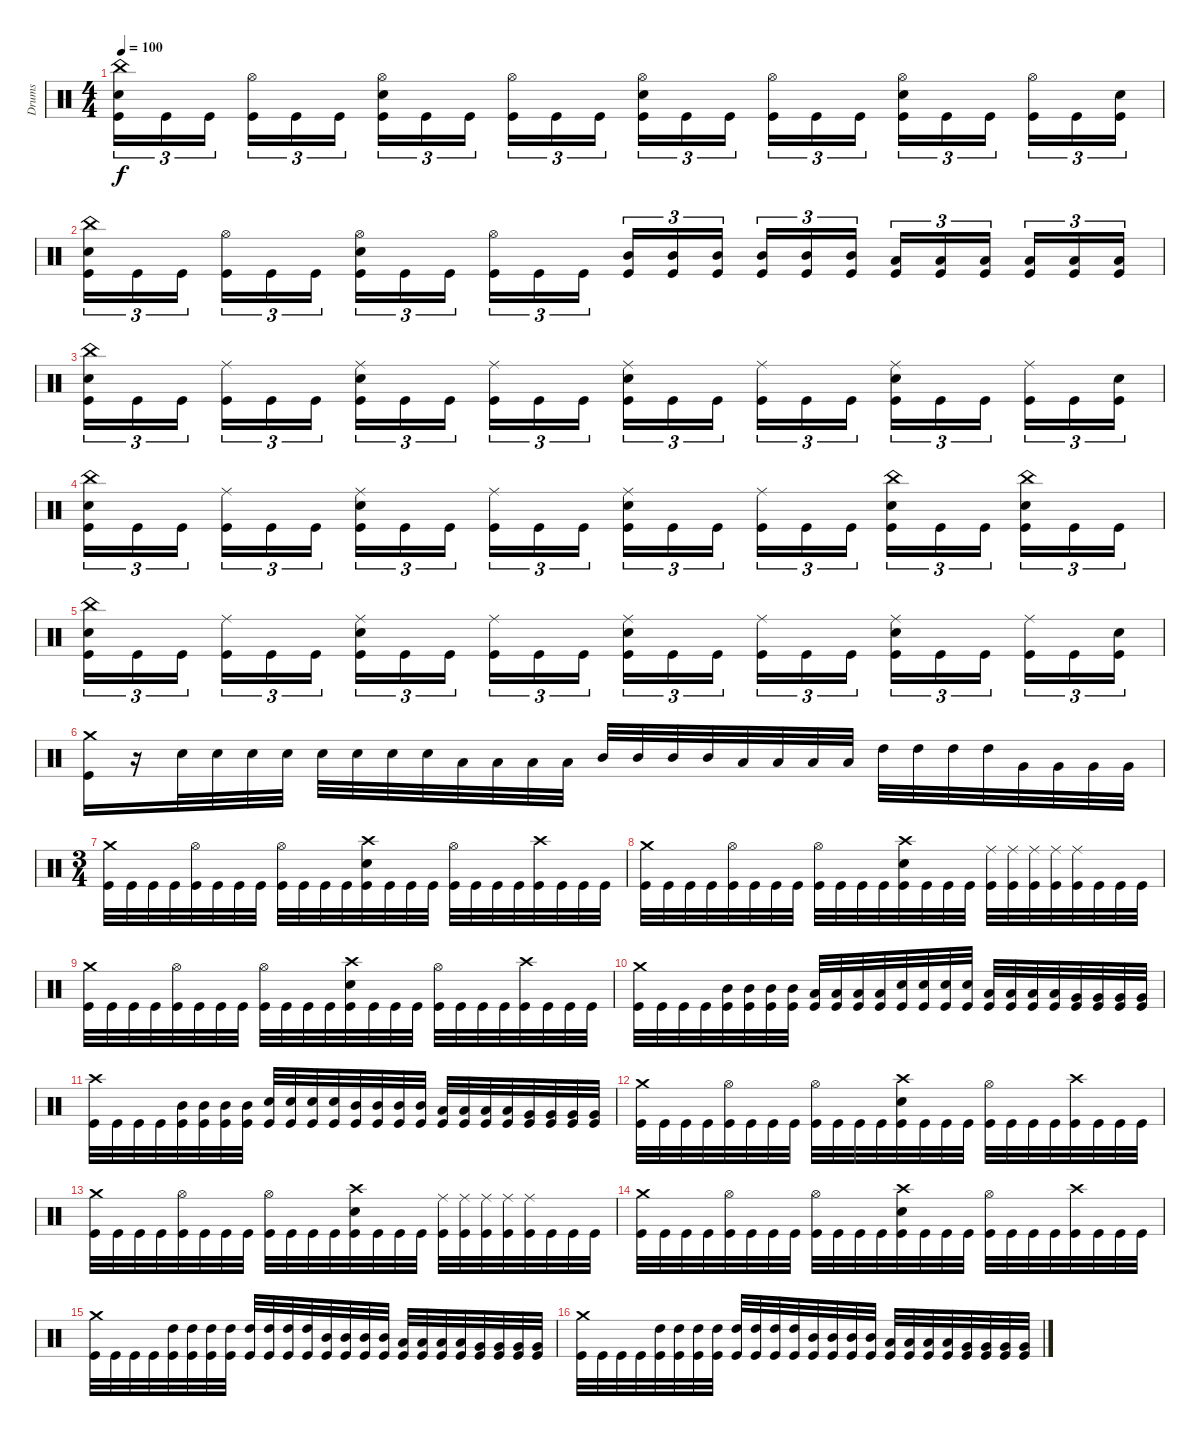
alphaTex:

\track ("Drums" "Drums") {instrument percussion}
\staff {score}
\articulation defaults
\ts (4 4)
\tempo 100
\clef neutral
\ks c
("China (hit)" "Snare (hit) 2" "Kick (hit)").16{tu (3 2) dy f} "Kick (hit)".16{tu (3 2)} "Kick (hit)".16{tu (3 2)} ("Hi-Hat (open)" "Kick (hit)").16{tu (3 2)} "Kick (hit)".16{tu (3 2)} "Kick (hit)".16{tu (3 2)} ("Hi-Hat (open)" "Snare (hit) 2" "Kick (hit)").16{tu (3 2)} "Kick (hit)".16{tu (3 2)} "Kick (hit)".16{tu (3 2)} ("Hi-Hat (open)" "Kick (hit)").16{tu (3 2)} "Kick (hit)".16{tu (3 2)} "Kick (hit)".16{tu (3 2)} ("Hi-Hat (open)" "Snare (hit) 2" "Kick (hit)").16{tu (3 2)} "Kick (hit)".16{tu (3 2)} "Kick (hit)".16{tu (3 2)} ("Hi-Hat (open)" "Kick (hit)").16{tu (3 2)} "Kick (hit)".16{tu (3 2)} "Kick (hit)".16{tu (3 2)} ("Hi-Hat (open)" "Snare (hit) 2" "Kick (hit)").16{tu (3 2)} "Kick (hit)".16{tu (3 2)} "Kick (hit)".16{tu (3 2)} ("Hi-Hat (open)" "Kick (hit)").16{tu (3 2)} "Kick (hit)".16{tu (3 2)} ("Snare (hit) 2" "Kick (hit)").16{tu (3 2)} |
("China (hit)" "Snare (hit) 2" "Kick (hit)").16{tu (3 2)} "Kick (hit)".16{tu (3 2)} "Kick (hit)".16{tu (3 2)} ("Hi-Hat (open)" "Kick (hit)").16{tu (3 2)} "Kick (hit)".16{tu (3 2)} "Kick (hit)".16{tu (3 2)} ("Hi-Hat (open)" "Snare (hit) 2" "Kick (hit)").16{tu (3 2)} "Kick (hit)".16{tu (3 2)} "Kick (hit)".16{tu (3 2)} ("Hi-Hat (open)" "Kick (hit)").16{tu (3 2)} "Kick (hit)".16{tu (3 2)} "Kick (hit)".16{tu (3 2)} ("Mid Tom (hit)" "Kick (hit)").16{tu (3 2)} ("Mid Tom (hit)" "Kick (hit)").16{tu (3 2)} ("Mid Tom (hit)" "Kick (hit)").16{tu (3 2)} ("Mid Tom (hit)" "Kick (hit)").16{tu (3 2)} ("Mid Tom (hit)" "Kick (hit)").16{tu (3 2)} ("Mid Tom (hit)" "Kick (hit)").16{tu (3 2)} ("Low Tom (hit)" "Kick (hit)").16{tu (3 2)} ("Low Tom (hit)" "Kick (hit)").16{tu (3 2)} ("Low Tom (hit)" "Kick (hit)").16{tu (3 2)} ("Low Tom (hit)" "Kick (hit)").16{tu (3 2)} ("Low Tom (hit)" "Kick (hit)").16{tu (3 2)} ("Low Tom (hit)" "Kick (hit)").16{tu (3 2)} |
("China (hit)" "Snare (hit) 2" "Kick (hit)").16{tu (3 2)} "Kick (hit)".16{tu (3 2)} "Kick (hit)".16{tu (3 2)} ("Ride (middle)" "Kick (hit)").16{tu (3 2)} "Kick (hit)".16{tu (3 2)} "Kick (hit)".16{tu (3 2)} ("Ride (middle)" "Snare (hit) 2" "Kick (hit)").16{tu (3 2)} "Kick (hit)".16{tu (3 2)} "Kick (hit)".16{tu (3 2)} ("Ride (middle)" "Kick (hit)").16{tu (3 2)} "Kick (hit)".16{tu (3 2)} "Kick (hit)".16{tu (3 2)} ("Ride (middle)" "Snare (hit) 2" "Kick (hit)").16{tu (3 2)} "Kick (hit)".16{tu (3 2)} "Kick (hit)".16{tu (3 2)} ("Ride (middle)" "Kick (hit)").16{tu (3 2)} "Kick (hit)".16{tu (3 2)} "Kick (hit)".16{tu (3 2)} ("Ride (middle)" "Snare (hit) 2" "Kick (hit)").16{tu (3 2)} "Kick (hit)".16{tu (3 2)} "Kick (hit)".16{tu (3 2)} ("Ride (middle)" "Kick (hit)").16{tu (3 2)} "Kick (hit)".16{tu (3 2)} ("Snare (hit) 2" "Kick (hit)").16{tu (3 2)} |
("China (hit)" "Snare (hit) 2" "Kick (hit)").16{tu (3 2)} "Kick (hit)".16{tu (3 2)} "Kick (hit)".16{tu (3 2)} ("Ride (middle)" "Kick (hit)").16{tu (3 2)} "Kick (hit)".16{tu (3 2)} "Kick (hit)".16{tu (3 2)} ("Ride (middle)" "Snare (hit) 2" "Kick (hit)").16{tu (3 2)} "Kick (hit)".16{tu (3 2)} "Kick (hit)".16{tu (3 2)} ("Ride (middle)" "Kick (hit)").16{tu (3 2)} "Kick (hit)".16{tu (3 2)} "Kick (hit)".16{tu (3 2)} ("Ride (middle)" "Snare (hit) 2" "Kick (hit)").16{tu (3 2)} "Kick (hit)".16{tu (3 2)} "Kick (hit)".16{tu (3 2)} ("Ride (middle)" "Kick (hit)").16{tu (3 2)} "Kick (hit)".16{tu (3 2)} "Kick (hit)".16{tu (3 2)} ("China (hit)" "Snare (hit) 2" "Kick (hit)").16{tu (3 2)} "Kick (hit)".16{tu (3 2)} "Kick (hit)".16{tu (3 2)} ("China (hit)" "Snare (hit) 2" "Kick (hit)").16{tu (3 2)} "Kick (hit)".16{tu (3 2)} "Kick (hit)".16{tu (3 2)} |
("China (hit)" "Snare (hit) 2" "Kick (hit)").16{tu (3 2)} "Kick (hit)".16{tu (3 2)} "Kick (hit)".16{tu (3 2)} ("Ride (middle)" "Kick (hit)").16{tu (3 2)} "Kick (hit)".16{tu (3 2)} "Kick (hit)".16{tu (3 2)} ("Ride (middle)" "Snare (hit) 2" "Kick (hit)").16{tu (3 2)} "Kick (hit)".16{tu (3 2)} "Kick (hit)".16{tu (3 2)} ("Ride (middle)" "Kick (hit)").16{tu (3 2)} "Kick (hit)".16{tu (3 2)} "Kick (hit)".16{tu (3 2)} ("Ride (middle)" "Snare (hit) 2" "Kick (hit)").16{tu (3 2)} "Kick (hit)".16{tu (3 2)} "Kick (hit)".16{tu (3 2)} ("Ride (middle)" "Kick (hit)").16{tu (3 2)} "Kick (hit)".16{tu (3 2)} "Kick (hit)".16{tu (3 2)} ("Ride (middle)" "Snare (hit) 2" "Kick (hit)").16{tu (3 2)} "Kick (hit)".16{tu (3 2)} "Kick (hit)".16{tu (3 2)} ("Ride (middle)" "Kick (hit)").16{tu (3 2)} "Kick (hit)".16{tu (3 2)} ("Snare (hit) 2" "Kick (hit)").16{tu (3 2)} |
("Crash medium (hit)" "Kick (hit)").16 r.16 "Snare (hit) 2".32 "Snare (hit) 2".32 "Snare (hit) 2".32 "Snare (hit) 2".32 "Snare (hit) 2".32 "Snare (hit) 2".32 "Snare (hit) 2".32 "Snare (hit) 2".32 "Low Tom (hit)".32 "Low Tom (hit)".32 "Low Tom (hit)".32 "Low Tom (hit)".32 "Mid Tom (hit)".32 "Mid Tom (hit)".32 "Mid Tom (hit)".32 "Mid Tom (hit)".32 "Low Tom (hit)".32 "Low Tom (hit)".32 "Low Tom (hit)".32 "Low Tom (hit)".32 "High Tom (hit)".32 "High Tom (hit)".32 "High Tom (hit)".32 "High Tom (hit)".32 "Very Low Tom (hit)".32 "Very Low Tom (hit)".32 "Very Low Tom (hit)".32 "Very Low Tom (hit)".32 |
\ts (3 4)
("Crash medium (hit)" "Kick (hit)").32 "Kick (hit)".32 "Kick (hit)".32 "Kick (hit)".32 ("Hi-Hat (open)" "Kick (hit)").32 "Kick (hit)".32 "Kick (hit)".32 "Kick (hit)".32 ("Hi-Hat (open)" "Kick (hit)").32 "Kick (hit)".32 "Kick (hit)".32 "Kick (hit)".32 ("Crash high (hit)" "Snare (hit) 2" "Kick (hit)").32 "Kick (hit)".32 "Kick (hit)".32 "Kick (hit)".32 ("Hi-Hat (open)" "Kick (hit)").32 "Kick (hit)".32 "Kick (hit)".32 "Kick (hit)".32 ("Crash high (hit)" "Kick (hit)").32 "Kick (hit)".32 "Kick (hit)".32 "Kick (hit)".32 |
("Crash medium (hit)" "Kick (hit)").32 "Kick (hit)".32 "Kick (hit)".32 "Kick (hit)".32 ("Hi-Hat (open)" "Kick (hit)").32 "Kick (hit)".32 "Kick (hit)".32 "Kick (hit)".32 ("Hi-Hat (open)" "Kick (hit)").32 "Kick (hit)".32 "Kick (hit)".32 "Kick (hit)".32 ("Crash high (hit)" "Snare (hit) 2" "Kick (hit)").32 "Kick (hit)".32 "Kick (hit)".32 "Kick (hit)".32 ("Ride (middle)" "Kick (hit)").32 ("Ride (middle)" "Kick (hit)").32 ("Ride (middle)" "Kick (hit)").32 ("Ride (middle)" "Kick (hit)").32 ("Ride (middle)" "Kick (hit)").32 "Kick (hit)".32 "Kick (hit)".32 "Kick (hit)".32 |
("Crash medium (hit)" "Kick (hit)").32 "Kick (hit)".32 "Kick (hit)".32 "Kick (hit)".32 ("Hi-Hat (open)" "Kick (hit)").32 "Kick (hit)".32 "Kick (hit)".32 "Kick (hit)".32 ("Hi-Hat (open)" "Kick (hit)").32 "Kick (hit)".32 "Kick (hit)".32 "Kick (hit)".32 ("Crash high (hit)" "Snare (hit) 2" "Kick (hit)").32 "Kick (hit)".32 "Kick (hit)".32 "Kick (hit)".32 ("Hi-Hat (open)" "Kick (hit)").32 "Kick (hit)".32 "Kick (hit)".32 "Kick (hit)".32 ("Crash high (hit)" "Kick (hit)").32 "Kick (hit)".32 "Kick (hit)".32 "Kick (hit)".32 |
("Crash medium (hit)" "Kick (hit)").32 "Kick (hit)".32 "Kick (hit)".32 "Kick (hit)".32 ("Mid Tom (hit)" "Kick (hit)").32 ("Mid Tom (hit)" "Kick (hit)").32 ("Mid Tom (hit)" "Kick (hit)").32 ("Mid Tom (hit)" "Kick (hit)").32 ("Low Tom (hit)" "Kick (hit)").32 ("Low Tom (hit)" "Kick (hit)").32 ("Low Tom (hit)" "Kick (hit)").32 ("Low Tom (hit)" "Kick (hit)").32 ("Snare (hit) 2" "Kick (hit)").32 ("Snare (hit) 2" "Kick (hit)").32 ("Snare (hit) 2" "Kick (hit)").32 ("Snare (hit) 2" "Kick (hit)").32 ("Low Tom (hit)" "Kick (hit)").32 ("Low Tom (hit)" "Kick (hit)").32 ("Low Tom (hit)" "Kick (hit)").32 ("Low Tom (hit)" "Kick (hit)").32 ("Very Low Tom (hit)" "Kick (hit)").32 ("Very Low Tom (hit)" "Kick (hit)").32 ("Very Low Tom (hit)" "Kick (hit)").32 ("Very Low Tom (hit)" "Kick (hit)").32 |
("Crash high (hit)" "Kick (hit)").32 "Kick (hit)".32 "Kick (hit)".32 "Kick (hit)".32 ("Mid Tom (hit)" "Kick (hit)").32 ("Mid Tom (hit)" "Kick (hit)").32 ("Mid Tom (hit)" "Kick (hit)").32 ("Mid Tom (hit)" "Kick (hit)").32 ("Snare (hit) 2" "Kick (hit)").32 ("Snare (hit) 2" "Kick (hit)").32 ("Snare (hit) 2" "Kick (hit)").32 ("Snare (hit) 2" "Kick (hit)").32 ("Mid Tom (hit)" "Kick (hit)").32 ("Mid Tom (hit)" "Kick (hit)").32 ("Mid Tom (hit)" "Kick (hit)").32 ("Mid Tom (hit)" "Kick (hit)").32 ("Low Tom (hit)" "Kick (hit)").32 ("Low Tom (hit)" "Kick (hit)").32 ("Low Tom (hit)" "Kick (hit)").32 ("Low Tom (hit)" "Kick (hit)").32 ("Very Low Tom (hit)" "Kick (hit)").32 ("Very Low Tom (hit)" "Kick (hit)").32 ("Very Low Tom (hit)" "Kick (hit)").32 ("Very Low Tom (hit)" "Kick (hit)").32 |
("Crash medium (hit)" "Kick (hit)").32 "Kick (hit)".32 "Kick (hit)".32 "Kick (hit)".32 ("Hi-Hat (open)" "Kick (hit)").32 "Kick (hit)".32 "Kick (hit)".32 "Kick (hit)".32 ("Hi-Hat (open)" "Kick (hit)").32 "Kick (hit)".32 "Kick (hit)".32 "Kick (hit)".32 ("Crash high (hit)" "Snare (hit) 2" "Kick (hit)").32 "Kick (hit)".32 "Kick (hit)".32 "Kick (hit)".32 ("Hi-Hat (open)" "Kick (hit)").32 "Kick (hit)".32 "Kick (hit)".32 "Kick (hit)".32 ("Crash high (hit)" "Kick (hit)").32 "Kick (hit)".32 "Kick (hit)".32 "Kick (hit)".32 |
("Crash medium (hit)" "Kick (hit)").32 "Kick (hit)".32 "Kick (hit)".32 "Kick (hit)".32 ("Hi-Hat (open)" "Kick (hit)").32 "Kick (hit)".32 "Kick (hit)".32 "Kick (hit)".32 ("Hi-Hat (open)" "Kick (hit)").32 "Kick (hit)".32 "Kick (hit)".32 "Kick (hit)".32 ("Crash high (hit)" "Snare (hit) 2" "Kick (hit)").32 "Kick (hit)".32 "Kick (hit)".32 "Kick (hit)".32 ("Ride (middle)" "Kick (hit)").32 ("Ride (middle)" "Kick (hit)").32 ("Ride (middle)" "Kick (hit)").32 ("Ride (middle)" "Kick (hit)").32 ("Ride (middle)" "Kick (hit)").32 "Kick (hit)".32 "Kick (hit)".32 "Kick (hit)".32 |
("Crash medium (hit)" "Kick (hit)").32 "Kick (hit)".32 "Kick (hit)".32 "Kick (hit)".32 ("Hi-Hat (open)" "Kick (hit)").32 "Kick (hit)".32 "Kick (hit)".32 "Kick (hit)".32 ("Hi-Hat (open)" "Kick (hit)").32 "Kick (hit)".32 "Kick (hit)".32 "Kick (hit)".32 ("Crash high (hit)" "Snare (hit) 2" "Kick (hit)").32 "Kick (hit)".32 "Kick (hit)".32 "Kick (hit)".32 ("Hi-Hat (open)" "Kick (hit)").32 "Kick (hit)".32 "Kick (hit)".32 "Kick (hit)".32 ("Crash high (hit)" "Kick (hit)").32 "Kick (hit)".32 "Kick (hit)".32 "Kick (hit)".32 |
("Crash medium (hit)" "Kick (hit)").32 "Kick (hit)".32 "Kick (hit)".32 "Kick (hit)".32 ("High Tom (hit)" "Kick (hit)").32 ("High Tom (hit)" "Kick (hit)").32 ("High Tom (hit)" "Kick (hit)").32 ("High Tom (hit)" "Kick (hit)").32 ("High Tom (hit)" "Kick (hit)").32 ("High Tom (hit)" "Kick (hit)").32 ("High Tom (hit)" "Kick (hit)").32 ("High Tom (hit)" "Kick (hit)").32 ("Mid Tom (hit)" "Kick (hit)").32 ("Mid Tom (hit)" "Kick (hit)").32 ("Mid Tom (hit)" "Kick (hit)").32 ("Mid Tom (hit)" "Kick (hit)").32 ("Low Tom (hit)" "Kick (hit)").32 ("Low Tom (hit)" "Kick (hit)").32 ("Low Tom (hit)" "Kick (hit)").32 ("Low Tom (hit)" "Kick (hit)").32 ("Very Low Tom (hit)" "Kick (hit)").32 ("Very Low Tom (hit)" "Kick (hit)").32 ("Very Low Tom (hit)" "Kick (hit)").32 ("Very Low Tom (hit)" "Kick (hit)").32 |
("Crash medium (hit)" "Kick (hit)").32 "Kick (hit)".32 "Kick (hit)".32 "Kick (hit)".32 ("High Tom (hit)" "Kick (hit)").32 ("High Tom (hit)" "Kick (hit)").32 ("High Tom (hit)" "Kick (hit)").32 ("High Tom (hit)" "Kick (hit)").32 ("High Tom (hit)" "Kick (hit)").32 ("High Tom (hit)" "Kick (hit)").32 ("High Tom (hit)" "Kick (hit)").32 ("High Tom (hit)" "Kick (hit)").32 ("Mid Tom (hit)" "Kick (hit)").32 ("Mid Tom (hit)" "Kick (hit)").32 ("Mid Tom (hit)" "Kick (hit)").32 ("Mid Tom (hit)" "Kick (hit)").32 ("Low Tom (hit)" "Kick (hit)").32 ("Low Tom (hit)" "Kick (hit)").32 ("Low Tom (hit)" "Kick (hit)").32 ("Low Tom (hit)" "Kick (hit)").32 ("Very Low Tom (hit)" "Kick (hit)").32 ("Very Low Tom (hit)" "Kick (hit)").32 ("Very Low Tom (hit)" "Kick (hit)").32 ("Very Low Tom (hit)" "Kick (hit)").32
